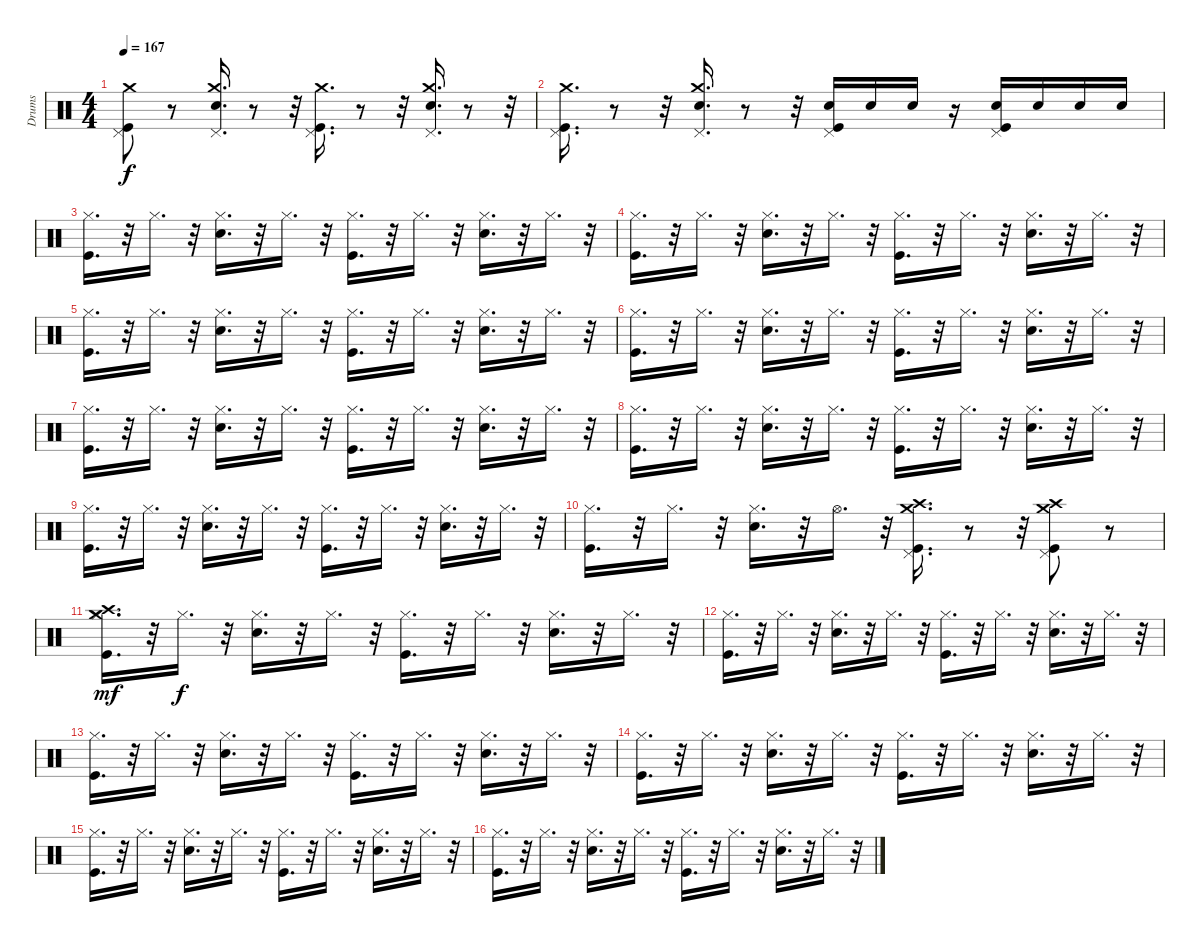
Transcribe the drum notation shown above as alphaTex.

\track ("Drums" "Drums") {instrument percussion}
\staff {score}
\articulation defaults
\ts (4 4)
\tempo 167
\clef neutral
\ks c
("Pedal Hi-Hat (hit)" "Kick (hit)" "Crash medium (hit)").8{dy f} r.8 ("Electric Snare (hit)" "Crash medium (hit)" "Pedal Hi-Hat (hit)").16{d} r.8 r.32 ("Pedal Hi-Hat (hit)" "Kick (hit)" "Crash medium (hit)").16{d} r.8 r.32 ("Electric Snare (hit)" "Crash medium (hit)" "Pedal Hi-Hat (hit)").16{d} r.8 r.32 |
("Crash medium (hit)" "Kick (hit)" "Pedal Hi-Hat (hit)").16{d} r.8 r.32 ("Electric Snare (hit)" "Crash medium (hit)" "Pedal Hi-Hat (hit)").16{d} r.8 r.32 ("Kick (hit)" "Electric Snare (hit)" "Pedal Hi-Hat (hit)").16 "Electric Snare (hit)".16 "Electric Snare (hit)".16 r.16 ("Kick (hit)" "Electric Snare (hit)" "Pedal Hi-Hat (hit)").16 "Electric Snare (hit)".16 "Electric Snare (hit)".16 "Electric Snare (hit)".16 |
("Hi-Hat (closed)" "Kick (hit)").16{d} r.32 "Hi-Hat (closed)".16{d} r.32 ("Hi-Hat (closed)" "Electric Snare (hit)").16{d} r.32 "Hi-Hat (closed)".16{d} r.32 ("Hi-Hat (closed)" "Kick (hit)").16{d} r.32 "Hi-Hat (closed)".16{d} r.32 ("Hi-Hat (closed)" "Electric Snare (hit)").16{d} r.32 "Hi-Hat (closed)".16{d} r.32 |
("Kick (hit)" "Hi-Hat (closed)").16{d} r.32 "Hi-Hat (closed)".16{d} r.32 ("Hi-Hat (closed)" "Electric Snare (hit)").16{d} r.32 "Hi-Hat (closed)".16{d} r.32 ("Hi-Hat (closed)" "Kick (hit)").16{d} r.32 "Hi-Hat (closed)".16{d} r.32 ("Hi-Hat (closed)" "Electric Snare (hit)").16{d} r.32 "Hi-Hat (closed)".16{d} r.32 |
("Hi-Hat (closed)" "Kick (hit)").16{d} r.32 "Hi-Hat (closed)".16{d} r.32 ("Hi-Hat (closed)" "Electric Snare (hit)").16{d} r.32 "Hi-Hat (closed)".16{d} r.32 ("Kick (hit)" "Hi-Hat (closed)").16{d} r.32 "Hi-Hat (closed)".16{d} r.32 ("Hi-Hat (closed)" "Electric Snare (hit)").16{d} r.32 "Hi-Hat (closed)".16{d} r.32 |
("Hi-Hat (closed)" "Kick (hit)").16{d} r.32 "Hi-Hat (closed)".16{d} r.32 ("Hi-Hat (closed)" "Electric Snare (hit)").16{d} r.32 "Hi-Hat (closed)".16{d} r.32 ("Hi-Hat (closed)" "Kick (hit)").16{d} r.32 "Hi-Hat (closed)".16{d} r.32 ("Electric Snare (hit)" "Hi-Hat (closed)").16{d} r.32 "Hi-Hat (closed)".16{d} r.32 |
("Hi-Hat (closed)" "Kick (hit)").16{d} r.32 "Hi-Hat (closed)".16{d} r.32 ("Electric Snare (hit)" "Hi-Hat (closed)").16{d} r.32 "Hi-Hat (closed)".16{d} r.32 ("Hi-Hat (closed)" "Kick (hit)").16{d} r.32 "Hi-Hat (closed)".16{d} r.32 ("Hi-Hat (closed)" "Electric Snare (hit)").16{d} r.32 "Hi-Hat (closed)".16{d} r.32 |
("Hi-Hat (closed)" "Kick (hit)").16{d} r.32 "Hi-Hat (closed)".16{d} r.32 ("Electric Snare (hit)" "Hi-Hat (closed)").16{d} r.32 "Hi-Hat (closed)".16{d} r.32 ("Hi-Hat (closed)" "Kick (hit)").16{d} r.32 "Hi-Hat (closed)".16{d} r.32 ("Hi-Hat (closed)" "Electric Snare (hit)").16{d} r.32 "Hi-Hat (closed)".16{d} r.32 |
("Hi-Hat (closed)" "Kick (hit)").16{d} r.32 "Hi-Hat (closed)".16{d} r.32 ("Hi-Hat (closed)" "Electric Snare (hit)").16{d} r.32 "Hi-Hat (closed)".16{d} r.32 ("Kick (hit)" "Hi-Hat (closed)").16{d} r.32 "Hi-Hat (closed)".16{d} r.32 ("Electric Snare (hit)" "Hi-Hat (closed)").16{d} r.32 "Hi-Hat (closed)".16{d} r.32 |
("Kick (hit)" "Hi-Hat (closed)").16{d} r.32 "Hi-Hat (closed)".16{d} r.32 ("Hi-Hat (closed)" "Electric Snare (hit)").16{d} r.32 "Hi-Hat (open)".16{d} r.32 ("Pedal Hi-Hat (hit)" "Crash high (hit)" "Kick (hit)" "Crash medium (hit)").16{d} r.8 r.32 ("Pedal Hi-Hat (hit)" "Kick (hit)" "Crash high (hit)" "Crash medium (hit)").8 r.8 |
("Crash high (hit)" "Hi-Hat (closed)" "Crash medium (hit)" "Kick (hit)").16{d dy mf} r.32 "Hi-Hat (closed)".16{d dy f} r.32 ("Hi-Hat (closed)" "Electric Snare (hit)").16{d} r.32 "Hi-Hat (closed)".16{d} r.32 ("Kick (hit)" "Hi-Hat (closed)").16{d} r.32 "Hi-Hat (closed)".16{d} r.32 ("Hi-Hat (closed)" "Electric Snare (hit)").16{d} r.32 "Hi-Hat (closed)".16{d} r.32 |
("Hi-Hat (closed)" "Kick (hit)").16{d} r.32 "Hi-Hat (closed)".16{d} r.32 ("Electric Snare (hit)" "Hi-Hat (closed)").16{d} r.32 "Hi-Hat (closed)".16{d} r.32 ("Kick (hit)" "Hi-Hat (closed)").16{d} r.32 "Hi-Hat (closed)".16{d} r.32 ("Electric Snare (hit)" "Hi-Hat (closed)").16{d} r.32 "Hi-Hat (closed)".16{d} r.32 |
("Hi-Hat (closed)" "Kick (hit)").16{d} r.32 "Hi-Hat (closed)".16{d} r.32 ("Electric Snare (hit)" "Hi-Hat (closed)").16{d} r.32 "Hi-Hat (closed)".16{d} r.32 ("Hi-Hat (closed)" "Kick (hit)").16{d} r.32 "Hi-Hat (closed)".16{d} r.32 ("Electric Snare (hit)" "Hi-Hat (closed)").16{d} r.32 "Hi-Hat (closed)".16{d} r.32 |
("Hi-Hat (closed)" "Kick (hit)").16{d} r.32 "Hi-Hat (closed)".16{d} r.32 ("Electric Snare (hit)" "Hi-Hat (closed)").16{d} r.32 "Hi-Hat (closed)".16{d} r.32 ("Hi-Hat (closed)" "Kick (hit)").16{d} r.32 "Hi-Hat (closed)".16{d} r.32 ("Electric Snare (hit)" "Hi-Hat (closed)").16{d} r.32 "Hi-Hat (closed)".16{d} r.32 |
("Kick (hit)" "Hi-Hat (closed)").16{d} r.32 "Hi-Hat (closed)".16{d} r.32 ("Electric Snare (hit)" "Hi-Hat (closed)").16{d} r.32 "Hi-Hat (closed)".16{d} r.32 ("Hi-Hat (closed)" "Kick (hit)").16{d} r.32 "Hi-Hat (closed)".16{d} r.32 ("Electric Snare (hit)" "Hi-Hat (closed)").16{d} r.32 "Hi-Hat (closed)".16{d} r.32 |
("Hi-Hat (closed)" "Kick (hit)").16{d} r.32 "Hi-Hat (closed)".16{d} r.32 ("Electric Snare (hit)" "Hi-Hat (closed)").16{d} r.32 "Hi-Hat (closed)".16{d} r.32 ("Kick (hit)" "Hi-Hat (closed)").16{d} r.32 "Hi-Hat (closed)".16{d} r.32 ("Electric Snare (hit)" "Hi-Hat (closed)").16{d} r.32 "Hi-Hat (closed)".16{d} r.32
